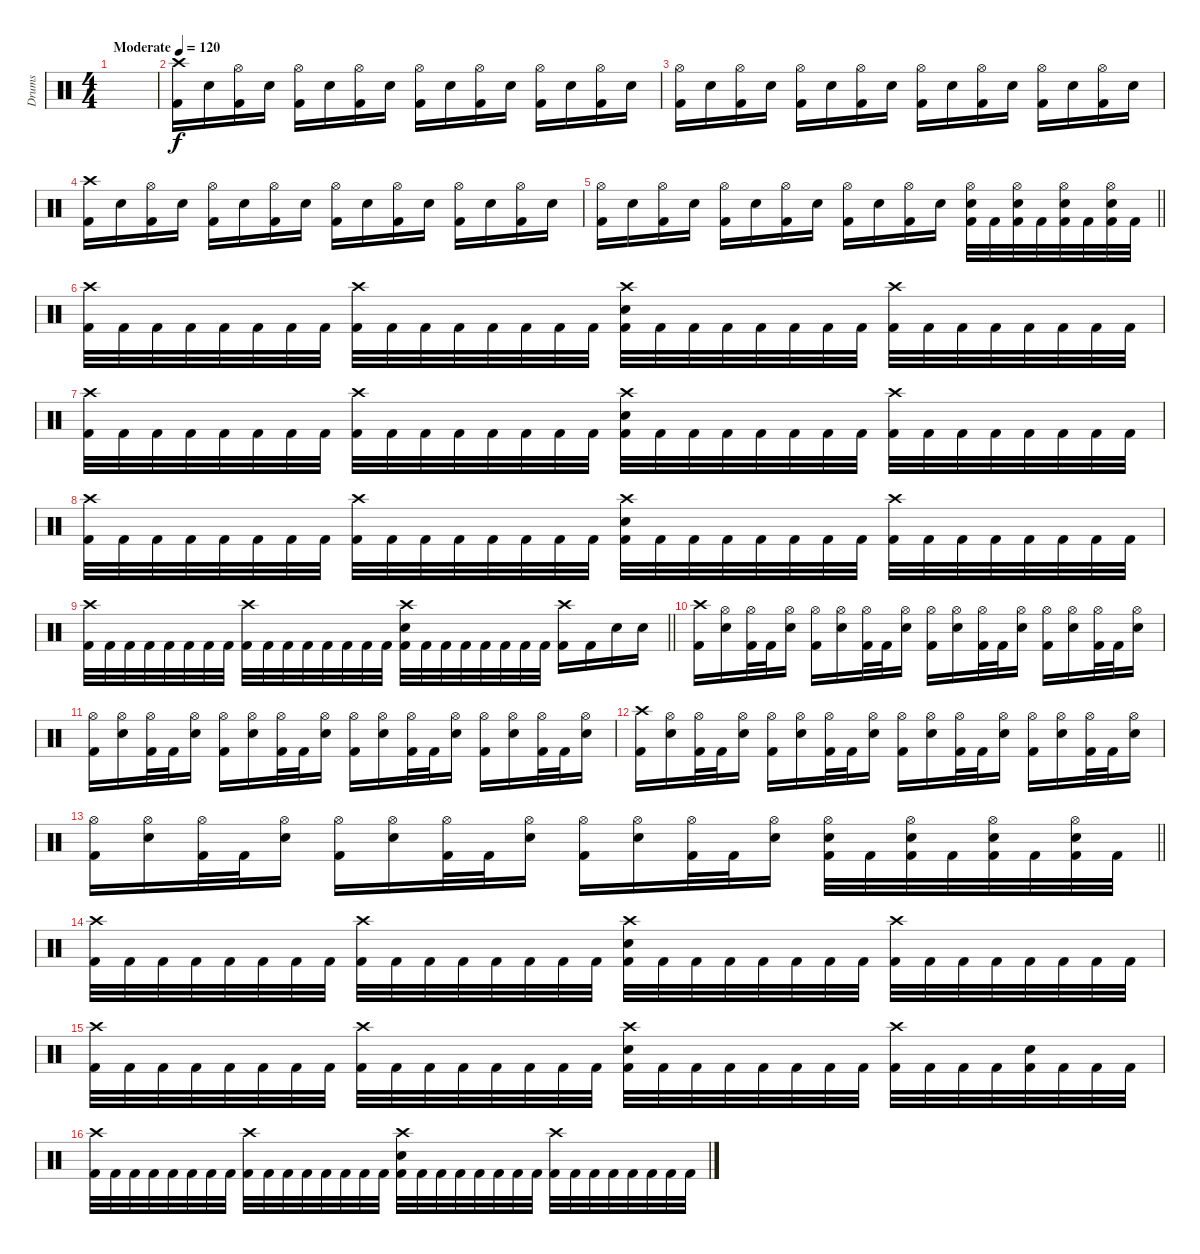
\track ("Drums" "Drums") {instrument percussion}
\staff
\articulation defaults
\ts (4 4)
\tempo (120 "Moderate")
\clef neutral
\ks c
|
("Crash high (hit)" "Kick (hit) 2").16 "Electric Snare (hit)".16 ("Hi-Hat (open)" "Kick (hit) 2").16 "Electric Snare (hit)".16 ("Hi-Hat (open)" "Kick (hit) 2").16 "Electric Snare (hit)".16 ("Hi-Hat (open)" "Kick (hit) 2").16 "Electric Snare (hit)".16 ("Hi-Hat (open)" "Kick (hit) 2").16 "Electric Snare (hit)".16 ("Hi-Hat (open)" "Kick (hit) 2").16 "Electric Snare (hit)".16 ("Hi-Hat (open)" "Kick (hit) 2").16 "Electric Snare (hit)".16 ("Hi-Hat (open)" "Kick (hit) 2").16 "Electric Snare (hit)".16 |
("Hi-Hat (open)" "Kick (hit) 2").16 "Electric Snare (hit)".16 ("Hi-Hat (open)" "Kick (hit) 2").16 "Electric Snare (hit)".16 ("Hi-Hat (open)" "Kick (hit) 2").16 "Electric Snare (hit)".16 ("Hi-Hat (open)" "Kick (hit) 2").16 "Electric Snare (hit)".16 ("Hi-Hat (open)" "Kick (hit) 2").16 "Electric Snare (hit)".16 ("Hi-Hat (open)" "Kick (hit) 2").16 "Electric Snare (hit)".16 ("Hi-Hat (open)" "Kick (hit) 2").16 "Electric Snare (hit)".16 ("Hi-Hat (open)" "Kick (hit) 2").16 "Electric Snare (hit)".16 |
("Crash high (hit)" "Kick (hit) 2").16 "Electric Snare (hit)".16 ("Hi-Hat (open)" "Kick (hit) 2").16 "Electric Snare (hit)".16 ("Hi-Hat (open)" "Kick (hit) 2").16 "Electric Snare (hit)".16 ("Hi-Hat (open)" "Kick (hit) 2").16 "Electric Snare (hit)".16 ("Hi-Hat (open)" "Kick (hit) 2").16 "Electric Snare (hit)".16 ("Hi-Hat (open)" "Kick (hit) 2").16 "Electric Snare (hit)".16 ("Hi-Hat (open)" "Kick (hit) 2").16 "Electric Snare (hit)".16 ("Hi-Hat (open)" "Kick (hit) 2").16 "Electric Snare (hit)".16 |
\barLineRight lightlight
("Hi-Hat (open)" "Kick (hit) 2").16 "Electric Snare (hit)".16 ("Hi-Hat (open)" "Kick (hit) 2").16 "Electric Snare (hit)".16 ("Hi-Hat (open)" "Kick (hit) 2").16 "Electric Snare (hit)".16 ("Hi-Hat (open)" "Kick (hit) 2").16 "Electric Snare (hit)".16 ("Hi-Hat (open)" "Kick (hit) 2").16 "Electric Snare (hit)".16 ("Hi-Hat (open)" "Kick (hit) 2").16 "Electric Snare (hit)".16 ("Hi-Hat (open)" "Electric Snare (hit)" "Kick (hit) 2").32 "Kick (hit) 2".32 ("Hi-Hat (open)" "Electric Snare (hit)" "Kick (hit) 2").32 "Kick (hit) 2".32 ("Hi-Hat (open)" "Electric Snare (hit)" "Kick (hit) 2").32 "Kick (hit) 2".32 ("Hi-Hat (open)" "Electric Snare (hit)" "Kick (hit) 2").32 "Kick (hit) 2".32 |
("Crash high (hit)" "Kick (hit) 2").32 "Kick (hit) 2".32 "Kick (hit) 2".32 "Kick (hit) 2".32 "Kick (hit) 2".32 "Kick (hit) 2".32 "Kick (hit) 2".32 "Kick (hit) 2".32 ("Crash high (hit)" "Kick (hit) 2").32 "Kick (hit) 2".32 "Kick (hit) 2".32 "Kick (hit) 2".32 "Kick (hit) 2".32 "Kick (hit) 2".32 "Kick (hit) 2".32 "Kick (hit) 2".32 ("Crash high (hit)" "Electric Snare (hit)" "Kick (hit) 2").32 "Kick (hit) 2".32 "Kick (hit) 2".32 "Kick (hit) 2".32 "Kick (hit) 2".32 "Kick (hit) 2".32 "Kick (hit) 2".32 "Kick (hit) 2".32 ("Crash high (hit)" "Kick (hit) 2").32 "Kick (hit) 2".32 "Kick (hit) 2".32 "Kick (hit) 2".32 "Kick (hit) 2".32 "Kick (hit) 2".32 "Kick (hit) 2".32 "Kick (hit) 2".32 |
("Crash high (hit)" "Kick (hit) 2").32 "Kick (hit) 2".32 "Kick (hit) 2".32 "Kick (hit) 2".32 "Kick (hit) 2".32 "Kick (hit) 2".32 "Kick (hit) 2".32 "Kick (hit) 2".32 ("Crash high (hit)" "Kick (hit) 2").32 "Kick (hit) 2".32 "Kick (hit) 2".32 "Kick (hit) 2".32 "Kick (hit) 2".32 "Kick (hit) 2".32 "Kick (hit) 2".32 "Kick (hit) 2".32 ("Crash high (hit)" "Electric Snare (hit)" "Kick (hit) 2").32 "Kick (hit) 2".32 "Kick (hit) 2".32 "Kick (hit) 2".32 "Kick (hit) 2".32 "Kick (hit) 2".32 "Kick (hit) 2".32 "Kick (hit) 2".32 ("Crash high (hit)" "Kick (hit) 2").32 "Kick (hit) 2".32 "Kick (hit) 2".32 "Kick (hit) 2".32 "Kick (hit) 2".32 "Kick (hit) 2".32 "Kick (hit) 2".32 "Kick (hit) 2".32 |
("Crash high (hit)" "Kick (hit) 2").32 "Kick (hit) 2".32 "Kick (hit) 2".32 "Kick (hit) 2".32 "Kick (hit) 2".32 "Kick (hit) 2".32 "Kick (hit) 2".32 "Kick (hit) 2".32 ("Crash high (hit)" "Kick (hit) 2").32 "Kick (hit) 2".32 "Kick (hit) 2".32 "Kick (hit) 2".32 "Kick (hit) 2".32 "Kick (hit) 2".32 "Kick (hit) 2".32 "Kick (hit) 2".32 ("Crash high (hit)" "Electric Snare (hit)" "Kick (hit) 2").32 "Kick (hit) 2".32 "Kick (hit) 2".32 "Kick (hit) 2".32 "Kick (hit) 2".32 "Kick (hit) 2".32 "Kick (hit) 2".32 "Kick (hit) 2".32 ("Crash high (hit)" "Kick (hit) 2").32 "Kick (hit) 2".32 "Kick (hit) 2".32 "Kick (hit) 2".32 "Kick (hit) 2".32 "Kick (hit) 2".32 "Kick (hit) 2".32 "Kick (hit) 2".32 |
\barLineRight lightlight
("Crash high (hit)" "Kick (hit) 2").32 "Kick (hit) 2".32 "Kick (hit) 2".32 "Kick (hit) 2".32 "Kick (hit) 2".32 "Kick (hit) 2".32 "Kick (hit) 2".32 "Kick (hit) 2".32 ("Crash high (hit)" "Kick (hit) 2").32 "Kick (hit) 2".32 "Kick (hit) 2".32 "Kick (hit) 2".32 "Kick (hit) 2".32 "Kick (hit) 2".32 "Kick (hit) 2".32 "Kick (hit) 2".32 ("Crash high (hit)" "Electric Snare (hit)" "Kick (hit) 2").32 "Kick (hit) 2".32 "Kick (hit) 2".32 "Kick (hit) 2".32 "Kick (hit) 2".32 "Kick (hit) 2".32 "Kick (hit) 2".32 "Kick (hit) 2".32 ("Crash high (hit)" "Kick (hit) 2").16 "Kick (hit) 2".16 "Electric Snare (hit)".16 "Electric Snare (hit)".16 |
("Crash high (hit)" "Kick (hit) 2").16 ("Hi-Hat (open)" "Electric Snare (hit)").16 ("Hi-Hat (open)" "Kick (hit) 2").32 "Kick (hit) 2".32 ("Hi-Hat (open)" "Electric Snare (hit)").16 ("Hi-Hat (open)" "Kick (hit) 2").16 ("Hi-Hat (open)" "Electric Snare (hit)").16 ("Hi-Hat (open)" "Kick (hit) 2").32 "Kick (hit) 2".32 ("Hi-Hat (open)" "Electric Snare (hit)").16 ("Hi-Hat (open)" "Kick (hit) 2").16 ("Hi-Hat (open)" "Electric Snare (hit)").16 ("Hi-Hat (open)" "Kick (hit) 2").32 "Kick (hit) 2".32 ("Hi-Hat (open)" "Electric Snare (hit)").16 ("Hi-Hat (open)" "Kick (hit) 2").16 ("Hi-Hat (open)" "Electric Snare (hit)").16 ("Hi-Hat (open)" "Kick (hit) 2").32 "Kick (hit) 2".32 ("Hi-Hat (open)" "Electric Snare (hit)").16 |
("Hi-Hat (open)" "Kick (hit) 2").16 ("Hi-Hat (open)" "Electric Snare (hit)").16 ("Hi-Hat (open)" "Kick (hit) 2").32 "Kick (hit) 2".32 ("Hi-Hat (open)" "Electric Snare (hit)").16 ("Hi-Hat (open)" "Kick (hit) 2").16 ("Hi-Hat (open)" "Electric Snare (hit)").16 ("Hi-Hat (open)" "Kick (hit) 2").32 "Kick (hit) 2".32 ("Hi-Hat (open)" "Electric Snare (hit)").16 ("Hi-Hat (open)" "Kick (hit) 2").16 ("Hi-Hat (open)" "Electric Snare (hit)").16 ("Hi-Hat (open)" "Kick (hit) 2").32 "Kick (hit) 2".32 ("Hi-Hat (open)" "Electric Snare (hit)").16 ("Hi-Hat (open)" "Kick (hit) 2").16 ("Hi-Hat (open)" "Electric Snare (hit)").16 ("Hi-Hat (open)" "Kick (hit) 2").32 "Kick (hit) 2".32 ("Hi-Hat (open)" "Electric Snare (hit)").16 |
("Crash high (hit)" "Kick (hit) 2").16 ("Hi-Hat (open)" "Electric Snare (hit)").16 ("Hi-Hat (open)" "Kick (hit) 2").32 "Kick (hit) 2".32 ("Hi-Hat (open)" "Electric Snare (hit)").16 ("Hi-Hat (open)" "Kick (hit) 2").16 ("Hi-Hat (open)" "Electric Snare (hit)").16 ("Hi-Hat (open)" "Kick (hit) 2").32 "Kick (hit) 2".32 ("Hi-Hat (open)" "Electric Snare (hit)").16 ("Hi-Hat (open)" "Kick (hit) 2").16 ("Hi-Hat (open)" "Electric Snare (hit)").16 ("Hi-Hat (open)" "Kick (hit) 2").32 "Kick (hit) 2".32 ("Hi-Hat (open)" "Electric Snare (hit)").16 ("Hi-Hat (open)" "Kick (hit) 2").16 ("Hi-Hat (open)" "Electric Snare (hit)").16 ("Hi-Hat (open)" "Kick (hit) 2").32 "Kick (hit) 2".32 ("Hi-Hat (open)" "Electric Snare (hit)").16 |
\barLineRight lightlight
("Hi-Hat (open)" "Kick (hit) 2").16 ("Hi-Hat (open)" "Electric Snare (hit)").16 ("Hi-Hat (open)" "Kick (hit) 2").32 "Kick (hit) 2".32 ("Hi-Hat (open)" "Electric Snare (hit)").16 ("Hi-Hat (open)" "Kick (hit) 2").16 ("Hi-Hat (open)" "Electric Snare (hit)").16 ("Hi-Hat (open)" "Kick (hit) 2").32 "Kick (hit) 2".32 ("Hi-Hat (open)" "Electric Snare (hit)").16 ("Hi-Hat (open)" "Kick (hit) 2").16 ("Hi-Hat (open)" "Electric Snare (hit)").16 ("Hi-Hat (open)" "Kick (hit) 2").32 "Kick (hit) 2".32 ("Hi-Hat (open)" "Electric Snare (hit)").16 ("Hi-Hat (open)" "Electric Snare (hit)" "Kick (hit) 2").32 "Kick (hit) 2".32 ("Hi-Hat (open)" "Electric Snare (hit)" "Kick (hit) 2").32 "Kick (hit) 2".32 ("Hi-Hat (open)" "Electric Snare (hit)" "Kick (hit) 2").32 "Kick (hit) 2".32 ("Hi-Hat (open)" "Electric Snare (hit)" "Kick (hit) 2").32 "Kick (hit) 2".32 |
("Crash high (hit)" "Kick (hit) 2").32 "Kick (hit) 2".32 "Kick (hit) 2".32 "Kick (hit) 2".32 "Kick (hit) 2".32 "Kick (hit) 2".32 "Kick (hit) 2".32 "Kick (hit) 2".32 ("Crash high (hit)" "Kick (hit) 2").32 "Kick (hit) 2".32 "Kick (hit) 2".32 "Kick (hit) 2".32 "Kick (hit) 2".32 "Kick (hit) 2".32 "Kick (hit) 2".32 "Kick (hit) 2".32 ("Crash high (hit)" "Electric Snare (hit)" "Kick (hit) 2").32 "Kick (hit) 2".32 "Kick (hit) 2".32 "Kick (hit) 2".32 "Kick (hit) 2".32 "Kick (hit) 2".32 "Kick (hit) 2".32 "Kick (hit) 2".32 ("Crash high (hit)" "Kick (hit) 2").32 "Kick (hit) 2".32 "Kick (hit) 2".32 "Kick (hit) 2".32 "Kick (hit) 2".32 "Kick (hit) 2".32 "Kick (hit) 2".32 "Kick (hit) 2".32 |
("Crash high (hit)" "Kick (hit) 2").32 "Kick (hit) 2".32 "Kick (hit) 2".32 "Kick (hit) 2".32 "Kick (hit) 2".32 "Kick (hit) 2".32 "Kick (hit) 2".32 "Kick (hit) 2".32 ("Crash high (hit)" "Kick (hit) 2").32 "Kick (hit) 2".32 "Kick (hit) 2".32 "Kick (hit) 2".32 "Kick (hit) 2".32 "Kick (hit) 2".32 "Kick (hit) 2".32 "Kick (hit) 2".32 ("Crash high (hit)" "Electric Snare (hit)" "Kick (hit) 2").32 "Kick (hit) 2".32 "Kick (hit) 2".32 "Kick (hit) 2".32 "Kick (hit) 2".32 "Kick (hit) 2".32 "Kick (hit) 2".32 "Kick (hit) 2".32 ("Crash high (hit)" "Kick (hit) 2").32 "Kick (hit) 2".32 "Kick (hit) 2".32 "Kick (hit) 2".32 ("Electric Snare (hit)" "Kick (hit) 2").32 "Kick (hit) 2".32 "Kick (hit) 2".32 "Kick (hit) 2".32 |
("Crash high (hit)" "Kick (hit) 2").32 "Kick (hit) 2".32 "Kick (hit) 2".32 "Kick (hit) 2".32 "Kick (hit) 2".32 "Kick (hit) 2".32 "Kick (hit) 2".32 "Kick (hit) 2".32 ("Crash high (hit)" "Kick (hit) 2").32 "Kick (hit) 2".32 "Kick (hit) 2".32 "Kick (hit) 2".32 "Kick (hit) 2".32 "Kick (hit) 2".32 "Kick (hit) 2".32 "Kick (hit) 2".32 ("Crash high (hit)" "Electric Snare (hit)" "Kick (hit) 2").32 "Kick (hit) 2".32 "Kick (hit) 2".32 "Kick (hit) 2".32 "Kick (hit) 2".32 "Kick (hit) 2".32 "Kick (hit) 2".32 "Kick (hit) 2".32 ("Crash high (hit)" "Kick (hit) 2").32 "Kick (hit) 2".32 "Kick (hit) 2".32 "Kick (hit) 2".32 "Kick (hit) 2".32 "Kick (hit) 2".32 "Kick (hit) 2".32 "Kick (hit) 2".32
